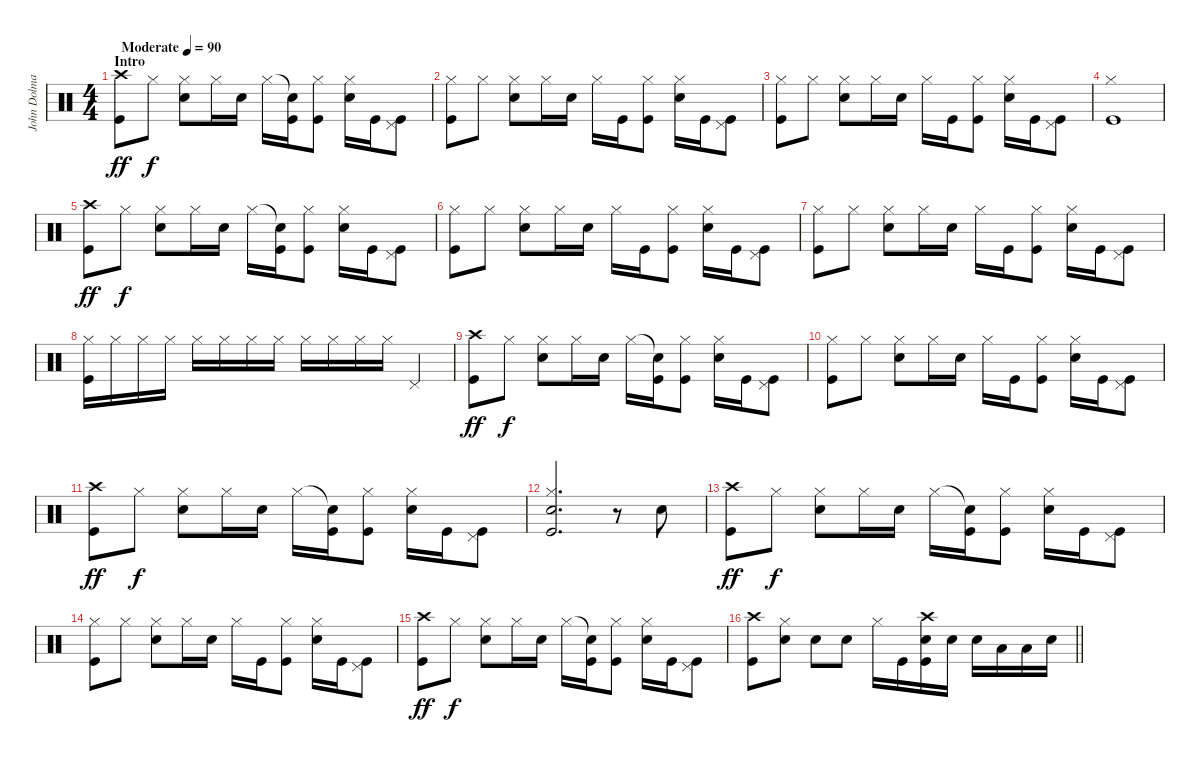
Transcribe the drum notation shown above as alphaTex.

\track ("John Dolmayan" "John Dolma") {instrument percussion}
\staff {score}
\articulation defaults
\ts (4 4)
\section ("" "Intro")
\tempo (90 "Moderate")
\clef neutral
\ks c
("Crash high (hit)" "Kick (hit)").8{dy ff} "Hi-Hat (closed)".8{dy f} ("Hi-Hat (closed)" "Snare (hit) 2").8 "Hi-Hat (closed)".16 "Snare (hit) 2".16 "Hi-Hat (closed)".16 ("Snare (hit)"{t} "Kick (hit)").16 ("Hi-Hat (closed)" "Kick (hit)").8 ("Hi-Hat (closed)" "Snare (hit) 2").16 "Kick (hit)".16 ("Pedal Hi-Hat (hit)" "Kick (hit)").8 |
("Hi-Hat (closed)" "Kick (hit)").8 "Hi-Hat (closed)".8 ("Hi-Hat (closed)" "Snare (hit) 2").8 "Hi-Hat (closed)".16 "Snare (hit) 2".16 "Hi-Hat (closed)".16 "Kick (hit)".16 ("Hi-Hat (closed)" "Kick (hit)").8 ("Hi-Hat (closed)" "Snare (hit) 2").16 "Kick (hit)".16 ("Pedal Hi-Hat (hit)" "Kick (hit)").8 |
("Hi-Hat (closed)" "Kick (hit)").8 "Hi-Hat (closed)".8 ("Hi-Hat (closed)" "Snare (hit) 2").8 "Hi-Hat (closed)".16 "Snare (hit) 2".16 "Hi-Hat (closed)".16 "Kick (hit)".16 ("Hi-Hat (closed)" "Kick (hit)").8 ("Hi-Hat (closed)" "Snare (hit) 2").16 "Kick (hit)".16 ("Pedal Hi-Hat (hit)" "Kick (hit)").8 |
("Hi-Hat (closed)" "Kick (hit)").1 |
("Crash high (hit)" "Kick (hit)").8{dy ff} "Hi-Hat (closed)".8{dy f} ("Hi-Hat (closed)" "Snare (hit) 2").8 "Hi-Hat (closed)".16 "Snare (hit) 2".16 "Hi-Hat (closed)".16 ("Snare (hit)"{t} "Kick (hit)").16 ("Hi-Hat (closed)" "Kick (hit)").8 ("Hi-Hat (closed)" "Snare (hit) 2").16 "Kick (hit)".16 ("Pedal Hi-Hat (hit)" "Kick (hit)").8 |
("Hi-Hat (closed)" "Kick (hit)").8 "Hi-Hat (closed)".8 ("Hi-Hat (closed)" "Snare (hit) 2").8 "Hi-Hat (closed)".16 "Snare (hit) 2".16 "Hi-Hat (closed)".16 "Kick (hit)".16 ("Hi-Hat (closed)" "Kick (hit)").8 ("Hi-Hat (closed)" "Snare (hit) 2").16 "Kick (hit)".16 ("Pedal Hi-Hat (hit)" "Kick (hit)").8 |
("Hi-Hat (closed)" "Kick (hit)").8 "Hi-Hat (closed)".8 ("Hi-Hat (closed)" "Snare (hit) 2").8 "Hi-Hat (closed)".16 "Snare (hit) 2".16 "Hi-Hat (closed)".16 "Kick (hit)".16 ("Hi-Hat (closed)" "Kick (hit)").8 ("Hi-Hat (closed)" "Snare (hit) 2").16 "Kick (hit)".16 ("Pedal Hi-Hat (hit)" "Kick (hit)").8 |
("Hi-Hat (closed)" "Kick (hit)").16 "Hi-Hat (closed)".16 "Hi-Hat (closed)".16 "Hi-Hat (closed)".16 "Hi-Hat (closed)".16 "Hi-Hat (closed)".16 "Hi-Hat (closed)".16 "Hi-Hat (closed)".16 "Hi-Hat (closed)".16 "Hi-Hat (closed)".16 "Hi-Hat (closed)".16 "Hi-Hat (closed)".16 "Pedal Hi-Hat (hit)".4 |
("Crash high (hit)" "Kick (hit)").8{dy ff} "Hi-Hat (closed)".8{dy f} ("Hi-Hat (closed)" "Snare (hit) 2").8 "Hi-Hat (closed)".16 "Snare (hit) 2".16 "Hi-Hat (closed)".16 ("Snare (hit)"{t} "Kick (hit)").16 ("Hi-Hat (closed)" "Kick (hit)").8 ("Hi-Hat (closed)" "Snare (hit) 2").16 "Kick (hit)".16 ("Pedal Hi-Hat (hit)" "Kick (hit)").8 |
("Hi-Hat (closed)" "Kick (hit)").8 "Hi-Hat (closed)".8 ("Hi-Hat (closed)" "Snare (hit) 2").8 "Hi-Hat (closed)".16 "Snare (hit) 2".16 "Hi-Hat (closed)".16 "Kick (hit)".16 ("Hi-Hat (closed)" "Kick (hit)").8 ("Hi-Hat (closed)" "Snare (hit) 2").16 "Kick (hit)".16 ("Pedal Hi-Hat (hit)" "Kick (hit)").8 |
("Crash high (hit)" "Kick (hit)").8{dy ff} "Hi-Hat (closed)".8{dy f} ("Hi-Hat (closed)" "Snare (hit) 2").8 "Hi-Hat (closed)".16 "Snare (hit) 2".16 "Hi-Hat (closed)".16 ("Snare (hit)"{t} "Kick (hit)").16 ("Hi-Hat (closed)" "Kick (hit)").8 ("Hi-Hat (closed)" "Snare (hit) 2").16 "Kick (hit)".16 ("Pedal Hi-Hat (hit)" "Kick (hit)").8 |
("Hi-Hat (closed)" "Snare (hit) 2" "Kick (hit)").2{d} r.8 "Snare (hit) 2".8 |
("Crash high (hit)" "Kick (hit)").8{dy ff} "Hi-Hat (closed)".8{dy f} ("Hi-Hat (closed)" "Snare (hit) 2").8 "Hi-Hat (closed)".16 "Snare (hit) 2".16 "Hi-Hat (closed)".16 ("Snare (hit)"{t} "Kick (hit)").16 ("Hi-Hat (closed)" "Kick (hit)").8 ("Hi-Hat (closed)" "Snare (hit) 2").16 "Kick (hit)".16 ("Pedal Hi-Hat (hit)" "Kick (hit)").8 |
("Hi-Hat (closed)" "Kick (hit)").8 "Hi-Hat (closed)".8 ("Hi-Hat (closed)" "Snare (hit) 2").8 "Hi-Hat (closed)".16 "Snare (hit) 2".16 "Hi-Hat (closed)".16 "Kick (hit)".16 ("Hi-Hat (closed)" "Kick (hit)").8 ("Hi-Hat (closed)" "Snare (hit) 2").16 "Kick (hit)".16 ("Pedal Hi-Hat (hit)" "Kick (hit)").8 |
("Crash high (hit)" "Kick (hit)").8{dy ff} "Hi-Hat (closed)".8{dy f} ("Hi-Hat (closed)" "Snare (hit) 2").8 "Hi-Hat (closed)".16 "Snare (hit) 2".16 "Hi-Hat (closed)".16 ("Snare (hit)"{t} "Kick (hit)").16 ("Hi-Hat (closed)" "Kick (hit)").8 ("Hi-Hat (closed)" "Snare (hit) 2").16 "Kick (hit)".16 ("Pedal Hi-Hat (hit)" "Kick (hit)").8 |
\barLineRight lightlight
("Crash high (hit)" "Kick (hit)").8 ("Hi-Hat (closed)" "Snare (hit) 2").8 "Snare (hit) 2".8 "Snare (hit) 2".8 "Hi-Hat (closed)".16 "Kick (hit)".16 ("Crash high (hit)" "Snare (hit) 2" "Kick (hit)").16 "Snare (hit) 2".16 "Snare (hit) 2".16 "Low Tom (hit)".16 "Low Tom (hit)".16 "Snare (hit) 2".16
